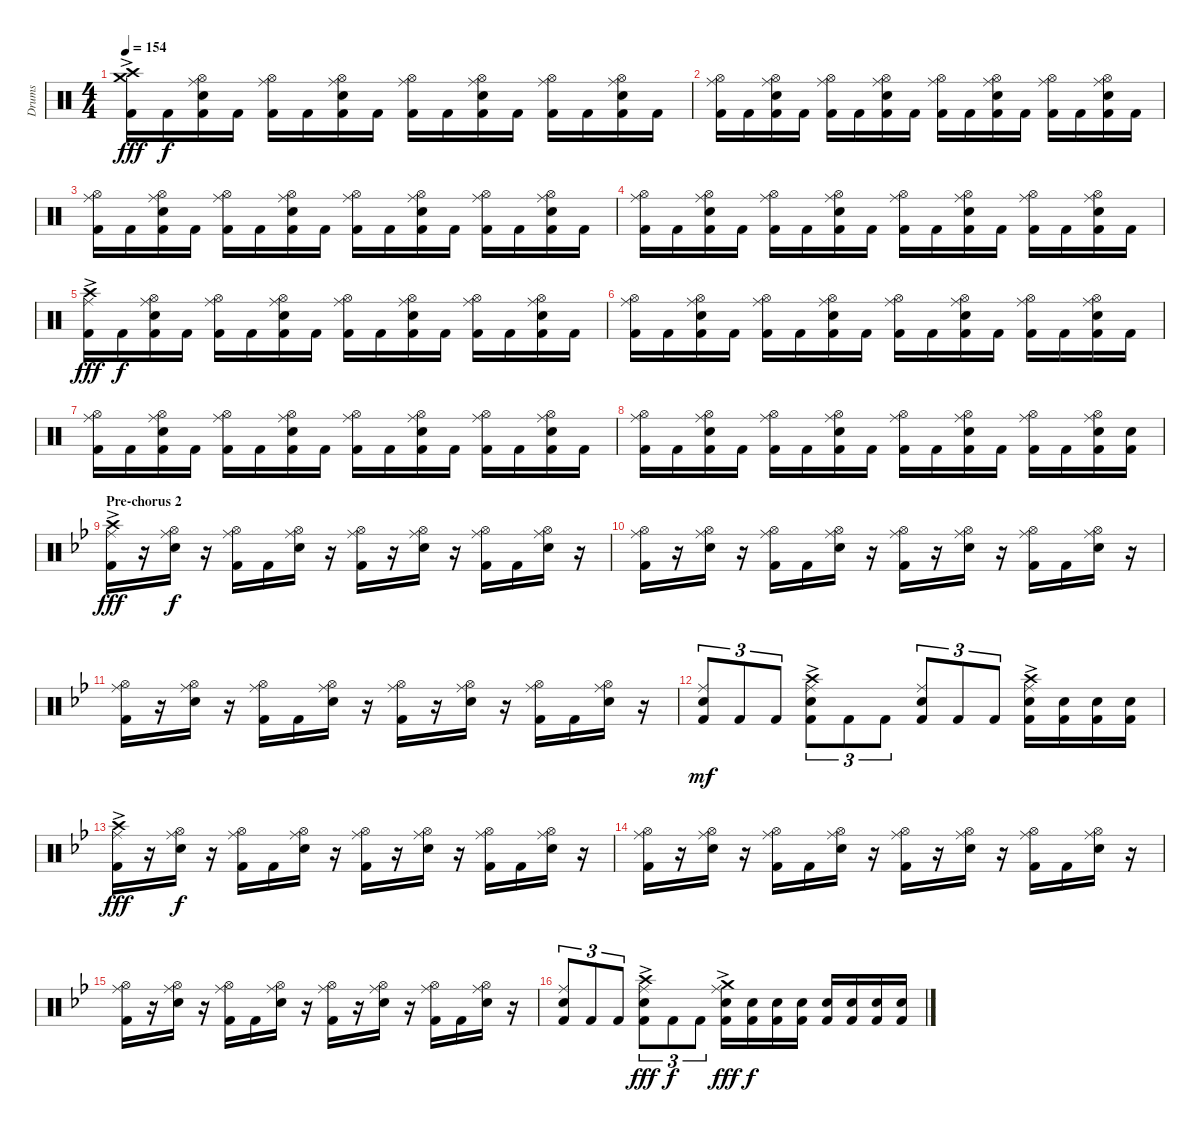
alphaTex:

\track ("Drums" "Drums") {instrument percussion}
\staff {score}
\articulation defaults
\ts (4 4)
\tempo 154
\clef neutral
\ks c
("Crash high (hit)" "Crash medium (hit)"{ac} "Kick (hit) 2").16{dy fff} "Kick (hit) 2".16{dy f} ("Hi-Hat (open)" "Ride (middle)" "Electric Snare (hit)" "Kick (hit) 2").16 "Kick (hit) 2".16 ("Hi-Hat (open)" "Ride (middle)" "Kick (hit) 2").16 "Kick (hit) 2".16 ("Hi-Hat (open)" "Ride (middle)" "Electric Snare (hit)" "Kick (hit) 2").16 "Kick (hit) 2".16 ("Hi-Hat (open)" "Ride (middle)" "Kick (hit) 2").16 "Kick (hit) 2".16 ("Hi-Hat (open)" "Ride (middle)" "Electric Snare (hit)" "Kick (hit) 2").16 "Kick (hit) 2".16 ("Hi-Hat (open)" "Ride (middle)" "Kick (hit) 2").16 "Kick (hit) 2".16 ("Hi-Hat (open)" "Ride (middle)" "Electric Snare (hit)" "Kick (hit) 2").16 "Kick (hit) 2".16 |
("Hi-Hat (open)" "Ride (middle)" "Kick (hit) 2").16 "Kick (hit) 2".16 ("Hi-Hat (open)" "Ride (middle)" "Electric Snare (hit)" "Kick (hit) 2").16 "Kick (hit) 2".16 ("Hi-Hat (open)" "Ride (middle)" "Kick (hit) 2").16 "Kick (hit) 2".16 ("Hi-Hat (open)" "Ride (middle)" "Electric Snare (hit)" "Kick (hit) 2").16 "Kick (hit) 2".16 ("Hi-Hat (open)" "Ride (middle)" "Kick (hit) 2").16 "Kick (hit) 2".16 ("Hi-Hat (open)" "Ride (middle)" "Electric Snare (hit)" "Kick (hit) 2").16 "Kick (hit) 2".16 ("Hi-Hat (open)" "Ride (middle)" "Kick (hit) 2").16 "Kick (hit) 2".16 ("Hi-Hat (open)" "Ride (middle)" "Electric Snare (hit)" "Kick (hit) 2").16 "Kick (hit) 2".16 |
("Hi-Hat (open)" "Ride (middle)" "Kick (hit) 2").16 "Kick (hit) 2".16 ("Hi-Hat (open)" "Ride (middle)" "Electric Snare (hit)" "Kick (hit) 2").16 "Kick (hit) 2".16 ("Hi-Hat (open)" "Ride (middle)" "Kick (hit) 2").16 "Kick (hit) 2".16 ("Hi-Hat (open)" "Ride (middle)" "Electric Snare (hit)" "Kick (hit) 2").16 "Kick (hit) 2".16 ("Hi-Hat (open)" "Ride (middle)" "Kick (hit) 2").16 "Kick (hit) 2".16 ("Hi-Hat (open)" "Ride (middle)" "Electric Snare (hit)" "Kick (hit) 2").16 "Kick (hit) 2".16 ("Hi-Hat (open)" "Ride (middle)" "Kick (hit) 2").16 "Kick (hit) 2".16 ("Hi-Hat (open)" "Ride (middle)" "Electric Snare (hit)" "Kick (hit) 2").16 "Kick (hit) 2".16 |
("Hi-Hat (open)" "Ride (middle)" "Kick (hit) 2").16 "Kick (hit) 2".16 ("Hi-Hat (open)" "Ride (middle)" "Electric Snare (hit)" "Kick (hit) 2").16 "Kick (hit) 2".16 ("Hi-Hat (open)" "Ride (middle)" "Kick (hit) 2").16 "Kick (hit) 2".16 ("Hi-Hat (open)" "Ride (middle)" "Electric Snare (hit)" "Kick (hit) 2").16 "Kick (hit) 2".16 ("Hi-Hat (open)" "Ride (middle)" "Kick (hit) 2").16 "Kick (hit) 2".16 ("Hi-Hat (open)" "Ride (middle)" "Electric Snare (hit)" "Kick (hit) 2").16 "Kick (hit) 2".16 ("Hi-Hat (open)" "Ride (middle)" "Kick (hit) 2").16 "Kick (hit) 2".16 ("Hi-Hat (open)" "Ride (middle)" "Electric Snare (hit)" "Kick (hit) 2").16 "Kick (hit) 2".16 |
("Crash high (hit)"{ac} "Ride (middle)" "Kick (hit) 2").16{dy fff} "Kick (hit) 2".16{dy f} ("Hi-Hat (open)" "Ride (middle)" "Electric Snare (hit)" "Kick (hit) 2").16 "Kick (hit) 2".16 ("Hi-Hat (open)" "Ride (middle)" "Kick (hit) 2").16 "Kick (hit) 2".16 ("Hi-Hat (open)" "Ride (middle)" "Electric Snare (hit)" "Kick (hit) 2").16 "Kick (hit) 2".16 ("Hi-Hat (open)" "Ride (middle)" "Kick (hit) 2").16 "Kick (hit) 2".16 ("Hi-Hat (open)" "Ride (middle)" "Electric Snare (hit)" "Kick (hit) 2").16 "Kick (hit) 2".16 ("Hi-Hat (open)" "Ride (middle)" "Kick (hit) 2").16 "Kick (hit) 2".16 ("Hi-Hat (open)" "Ride (middle)" "Electric Snare (hit)" "Kick (hit) 2").16 "Kick (hit) 2".16 |
("Hi-Hat (open)" "Ride (middle)" "Kick (hit) 2").16 "Kick (hit) 2".16 ("Hi-Hat (open)" "Ride (middle)" "Electric Snare (hit)" "Kick (hit) 2").16 "Kick (hit) 2".16 ("Hi-Hat (open)" "Ride (middle)" "Kick (hit) 2").16 "Kick (hit) 2".16 ("Hi-Hat (open)" "Ride (middle)" "Electric Snare (hit)" "Kick (hit) 2").16 "Kick (hit) 2".16 ("Hi-Hat (open)" "Ride (middle)" "Kick (hit) 2").16 "Kick (hit) 2".16 ("Hi-Hat (open)" "Ride (middle)" "Electric Snare (hit)" "Kick (hit) 2").16 "Kick (hit) 2".16 ("Hi-Hat (open)" "Ride (middle)" "Kick (hit) 2").16 "Kick (hit) 2".16 ("Hi-Hat (open)" "Ride (middle)" "Electric Snare (hit)" "Kick (hit) 2").16 "Kick (hit) 2".16 |
("Hi-Hat (open)" "Ride (middle)" "Kick (hit) 2").16 "Kick (hit) 2".16 ("Hi-Hat (open)" "Ride (middle)" "Electric Snare (hit)" "Kick (hit) 2").16 "Kick (hit) 2".16 ("Hi-Hat (open)" "Ride (middle)" "Kick (hit) 2").16 "Kick (hit) 2".16 ("Hi-Hat (open)" "Ride (middle)" "Electric Snare (hit)" "Kick (hit) 2").16 "Kick (hit) 2".16 ("Hi-Hat (open)" "Ride (middle)" "Kick (hit) 2").16 "Kick (hit) 2".16 ("Hi-Hat (open)" "Ride (middle)" "Electric Snare (hit)" "Kick (hit) 2").16 "Kick (hit) 2".16 ("Hi-Hat (open)" "Ride (middle)" "Kick (hit) 2").16 "Kick (hit) 2".16 ("Hi-Hat (open)" "Ride (middle)" "Electric Snare (hit)" "Kick (hit) 2").16 "Kick (hit) 2".16 |
("Hi-Hat (open)" "Ride (middle)" "Kick (hit) 2").16 "Kick (hit) 2".16 ("Hi-Hat (open)" "Ride (middle)" "Electric Snare (hit)" "Kick (hit) 2").16 "Kick (hit) 2".16 ("Hi-Hat (open)" "Ride (middle)" "Kick (hit) 2").16 "Kick (hit) 2".16 ("Hi-Hat (open)" "Ride (middle)" "Electric Snare (hit)" "Kick (hit) 2").16 "Kick (hit) 2".16 ("Hi-Hat (open)" "Ride (middle)" "Kick (hit) 2").16 "Kick (hit) 2".16 ("Hi-Hat (open)" "Ride (middle)" "Electric Snare (hit)" "Kick (hit) 2").16 "Kick (hit) 2".16 ("Hi-Hat (open)" "Ride (middle)" "Kick (hit) 2").16 "Kick (hit) 2".16 ("Hi-Hat (open)" "Ride (middle)" "Electric Snare (hit)" "Kick (hit) 2").16 ("Electric Snare (hit)" "Kick (hit) 2").16 |
\section ("" "Pre-chorus 2")
\ks gminor
("Crash high (hit)"{ac} "Ride (middle)" "Kick (hit) 2").16{dy fff} r.16 ("Hi-Hat (open)" "Ride (middle)" "Electric Snare (hit)").16{dy f} r.16 ("Hi-Hat (open)" "Ride (middle)" "Kick (hit) 2").16 "Kick (hit) 2".16 ("Hi-Hat (open)" "Ride (middle)" "Electric Snare (hit)").16 r.16 ("Hi-Hat (open)" "Ride (middle)" "Kick (hit) 2").16 r.16 ("Hi-Hat (open)" "Ride (middle)" "Electric Snare (hit)").16 r.16 ("Hi-Hat (open)" "Ride (middle)" "Kick (hit) 2").16 "Kick (hit) 2".16 ("Hi-Hat (open)" "Ride (middle)" "Electric Snare (hit)").16 r.16 |
("Hi-Hat (open)" "Ride (middle)" "Kick (hit) 2").16 r.16 ("Hi-Hat (open)" "Ride (middle)" "Electric Snare (hit)").16 r.16 ("Hi-Hat (open)" "Ride (middle)" "Kick (hit) 2").16 "Kick (hit) 2".16 ("Hi-Hat (open)" "Ride (middle)" "Electric Snare (hit)").16 r.16 ("Hi-Hat (open)" "Ride (middle)" "Kick (hit) 2").16 r.16 ("Hi-Hat (open)" "Ride (middle)" "Electric Snare (hit)").16 r.16 ("Hi-Hat (open)" "Ride (middle)" "Kick (hit) 2").16 "Kick (hit) 2".16 ("Hi-Hat (open)" "Ride (middle)" "Electric Snare (hit)").16 r.16 |
("Hi-Hat (open)" "Ride (middle)" "Kick (hit) 2").16 r.16 ("Hi-Hat (open)" "Ride (middle)" "Electric Snare (hit)").16 r.16 ("Hi-Hat (open)" "Ride (middle)" "Kick (hit) 2").16 "Kick (hit) 2".16 ("Hi-Hat (open)" "Ride (middle)" "Electric Snare (hit)").16 r.16 ("Hi-Hat (open)" "Ride (middle)" "Kick (hit) 2").16 r.16 ("Hi-Hat (open)" "Ride (middle)" "Electric Snare (hit)").16 r.16 ("Hi-Hat (open)" "Ride (middle)" "Kick (hit) 2").16 "Kick (hit) 2".16 ("Hi-Hat (open)" "Ride (middle)" "Electric Snare (hit)").16 r.16 |
("Ride (middle)" "Electric Snare (hit)" "Kick (hit) 2").8{tu (3 2) dy mf volume 13} "Kick (hit) 2".8{tu (3 2)} "Kick (hit) 2".8{tu (3 2)} ("Crash high (hit)"{ac} "Ride (middle)" "Electric Snare (hit)" "Kick (hit) 2").8{tu (3 2)} "Kick (hit) 2".8{tu (3 2)} "Kick (hit) 2".8{tu (3 2)} ("Ride (middle)" "Electric Snare (hit)" "Kick (hit) 2").8{tu (3 2)} "Kick (hit) 2".8{tu (3 2)} "Kick (hit) 2".8{tu (3 2)} ("Crash high (hit)"{ac} "Ride (middle)" "Electric Snare (hit)" "Kick (hit) 2").16 ("Electric Snare (hit)" "Kick (hit) 2").16 ("Electric Snare (hit)" "Kick (hit) 2").16 ("Electric Snare (hit)" "Kick (hit) 2").16 |
("Crash high (hit)"{ac} "Ride (middle)" "Kick (hit) 2").16{dy fff volume 15} r.16 ("Hi-Hat (open)" "Ride (middle)" "Electric Snare (hit)").16{dy f} r.16 ("Hi-Hat (open)" "Ride (middle)" "Kick (hit) 2").16 "Kick (hit) 2".16 ("Hi-Hat (open)" "Ride (middle)" "Electric Snare (hit)").16 r.16 ("Hi-Hat (open)" "Ride (middle)" "Kick (hit) 2").16 r.16 ("Hi-Hat (open)" "Ride (middle)" "Electric Snare (hit)").16 r.16 ("Hi-Hat (open)" "Ride (middle)" "Kick (hit) 2").16 "Kick (hit) 2".16 ("Hi-Hat (open)" "Ride (middle)" "Electric Snare (hit)").16 r.16 |
("Hi-Hat (open)" "Ride (middle)" "Kick (hit) 2").16 r.16 ("Hi-Hat (open)" "Ride (middle)" "Electric Snare (hit)").16 r.16 ("Hi-Hat (open)" "Ride (middle)" "Kick (hit) 2").16 "Kick (hit) 2".16 ("Hi-Hat (open)" "Ride (middle)" "Electric Snare (hit)").16 r.16 ("Hi-Hat (open)" "Ride (middle)" "Kick (hit) 2").16 r.16 ("Hi-Hat (open)" "Ride (middle)" "Electric Snare (hit)").16 r.16 ("Hi-Hat (open)" "Ride (middle)" "Kick (hit) 2").16 "Kick (hit) 2".16 ("Hi-Hat (open)" "Ride (middle)" "Electric Snare (hit)").16 r.16 |
("Hi-Hat (open)" "Ride (middle)" "Kick (hit) 2").16 r.16 ("Hi-Hat (open)" "Ride (middle)" "Electric Snare (hit)").16 r.16 ("Hi-Hat (open)" "Ride (middle)" "Kick (hit) 2").16 "Kick (hit) 2".16 ("Hi-Hat (open)" "Ride (middle)" "Electric Snare (hit)").16 r.16 ("Hi-Hat (open)" "Ride (middle)" "Kick (hit) 2").16 r.16 ("Hi-Hat (open)" "Ride (middle)" "Electric Snare (hit)").16 r.16 ("Hi-Hat (open)" "Ride (middle)" "Kick (hit) 2").16 "Kick (hit) 2".16 ("Hi-Hat (open)" "Ride (middle)" "Electric Snare (hit)").16 r.16 |
("Ride (middle)" "Electric Snare (hit)" "Kick (hit) 2").8{tu (3 2)} "Kick (hit) 2".8{tu (3 2)} "Kick (hit) 2".8{tu (3 2)} ("Crash high (hit)"{ac} "Ride (middle)" "Electric Snare (hit)" "Kick (hit) 2").8{tu (3 2) dy fff} "Kick (hit) 2".8{tu (3 2) dy f} "Kick (hit) 2".8{tu (3 2)} ("Crash medium (hit)"{ac} "Ride (middle)" "Electric Snare (hit)" "Kick (hit) 2").16{dy fff} ("Electric Snare (hit)" "Kick (hit) 2").16{dy f} ("Electric Snare (hit)" "Kick (hit) 2").16 ("Electric Snare (hit)" "Kick (hit) 2").16 ("Electric Snare (hit)" "Kick (hit) 2").16 ("Electric Snare (hit)" "Kick (hit) 2").16 ("Electric Snare (hit)" "Kick (hit) 2").16 ("Electric Snare (hit)" "Kick (hit) 2").16
